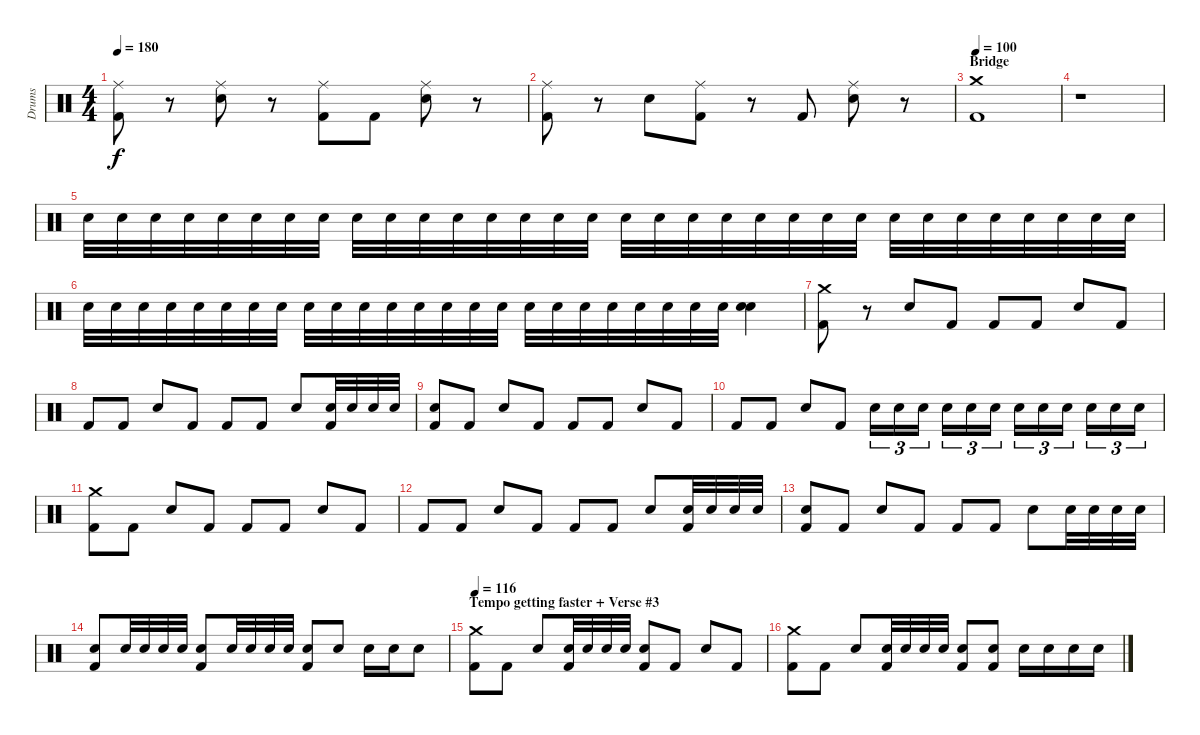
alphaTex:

\track ("Drums" "Drums") {instrument percussion}
\staff {score}
\articulation defaults
\ts (4 4)
\tempo 180
\clef neutral
\ks c
("Ride (middle)" "Kick (hit) 2").8{dy f} r.8 ("Ride (middle)" "Electric Snare (hit)").8 r.8 ("Ride (middle)" "Kick (hit) 2").8 "Kick (hit) 2".8 ("Ride (middle)" "Electric Snare (hit)").8 r.8 |
("Ride (middle)" "Kick (hit) 2").8 r.8 "Electric Snare (hit)".8 ("Ride (middle)" "Kick (hit) 2").8 r.8 "Kick (hit) 2".8 ("Ride (middle)" "Electric Snare (hit)").8 r.8 |
\section ("" "Bridge")
\tempo 100
("Kick (hit) 2" "Crash medium (hit)").1 |
r.1 |
"Electric Snare (hit)".32{volume 7} "Electric Snare (hit)".32 "Electric Snare (hit)".32 "Electric Snare (hit)".32 "Electric Snare (hit)".32 "Electric Snare (hit)".32 "Electric Snare (hit)".32 "Electric Snare (hit)".32 "Electric Snare (hit)".32 "Electric Snare (hit)".32 "Electric Snare (hit)".32 "Electric Snare (hit)".32 "Electric Snare (hit)".32 "Electric Snare (hit)".32 "Electric Snare (hit)".32 "Electric Snare (hit)".32 "Electric Snare (hit)".32 "Electric Snare (hit)".32 "Electric Snare (hit)".32 "Electric Snare (hit)".32 "Electric Snare (hit)".32 "Electric Snare (hit)".32 "Electric Snare (hit)".32 "Electric Snare (hit)".32 "Electric Snare (hit)".32 "Electric Snare (hit)".32 "Electric Snare (hit)".32 "Electric Snare (hit)".32 "Electric Snare (hit)".32 "Electric Snare (hit)".32 "Electric Snare (hit)".32 "Electric Snare (hit)".32 |
"Electric Snare (hit)".32 "Electric Snare (hit)".32 "Electric Snare (hit)".32 "Electric Snare (hit)".32 "Electric Snare (hit)".32 "Electric Snare (hit)".32 "Electric Snare (hit)".32 "Electric Snare (hit)".32 "Electric Snare (hit)".32 "Electric Snare (hit)".32 "Electric Snare (hit)".32 "Electric Snare (hit)".32 "Electric Snare (hit)".32 "Electric Snare (hit)".32 "Electric Snare (hit)".32 "Electric Snare (hit)".32 "Electric Snare (hit)".32 "Electric Snare (hit)".32 "Electric Snare (hit)".32 "Electric Snare (hit)".32 "Electric Snare (hit)".32 "Electric Snare (hit)".32 "Electric Snare (hit)".32 "Electric Snare (hit)".32 ("Electric Snare (hit)" "Electric Snare (hit)").4{volume 13} |
("Kick (hit) 2" "Crash medium (hit)").8 r.8 "Electric Snare (hit)".8 "Kick (hit) 2".8 "Kick (hit) 2".8 "Kick (hit) 2".8 "Electric Snare (hit)".8 "Kick (hit) 2".8 |
"Kick (hit) 2".8 "Kick (hit) 2".8 "Electric Snare (hit)".8 "Kick (hit) 2".8 "Kick (hit) 2".8 "Kick (hit) 2".8 "Electric Snare (hit)".8 ("Kick (hit) 2" "Electric Snare (hit)").32 "Electric Snare (hit)".32 "Electric Snare (hit)".32 "Electric Snare (hit)".32 |
("Kick (hit) 2" "Electric Snare (hit)").8 "Kick (hit) 2".8 "Electric Snare (hit)".8 "Kick (hit) 2".8 "Kick (hit) 2".8 "Kick (hit) 2".8 "Electric Snare (hit)".8 "Kick (hit) 2".8 |
"Kick (hit) 2".8 "Kick (hit) 2".8 "Electric Snare (hit)".8 "Kick (hit) 2".8 "Electric Snare (hit)".16{tu (3 2)} "Electric Snare (hit)".16{tu (3 2)} "Electric Snare (hit)".16{tu (3 2)} "Electric Snare (hit)".16{tu (3 2)} "Electric Snare (hit)".16{tu (3 2)} "Electric Snare (hit)".16{tu (3 2)} "Electric Snare (hit)".16{tu (3 2)} "Electric Snare (hit)".16{tu (3 2)} "Electric Snare (hit)".16{tu (3 2)} "Electric Snare (hit)".16{tu (3 2)} "Electric Snare (hit)".16{tu (3 2)} "Electric Snare (hit)".16{tu (3 2)} |
("Kick (hit) 2" "Crash medium (hit)").8 "Kick (hit) 2".8 "Electric Snare (hit)".8 "Kick (hit) 2".8 "Kick (hit) 2".8 "Kick (hit) 2".8 "Electric Snare (hit)".8 "Kick (hit) 2".8 |
"Kick (hit) 2".8 "Kick (hit) 2".8 "Electric Snare (hit)".8 "Kick (hit) 2".8 "Kick (hit) 2".8 "Kick (hit) 2".8 "Electric Snare (hit)".8 ("Kick (hit) 2" "Electric Snare (hit)").32 "Electric Snare (hit)".32 "Electric Snare (hit)".32 "Electric Snare (hit)".32 |
("Kick (hit) 2" "Electric Snare (hit)").8 "Kick (hit) 2".8 "Electric Snare (hit)".8 "Kick (hit) 2".8 "Kick (hit) 2".8 "Kick (hit) 2".8 "Electric Snare (hit)".8 "Electric Snare (hit)".32 "Electric Snare (hit)".32 "Electric Snare (hit)".32 "Electric Snare (hit)".32 |
("Kick (hit) 2" "Electric Snare (hit)").8 "Electric Snare (hit)".32 "Electric Snare (hit)".32 "Electric Snare (hit)".32 "Electric Snare (hit)".32 ("Kick (hit) 2" "Electric Snare (hit)").8 "Electric Snare (hit)".32 "Electric Snare (hit)".32 "Electric Snare (hit)".32 "Electric Snare (hit)".32 ("Kick (hit) 2" "Electric Snare (hit)").8 "Electric Snare (hit)".8 "Electric Snare (hit)".16 "Electric Snare (hit)".16 "Electric Snare (hit)".8 |
\section ("" "Tempo getting faster + Verse #3")
\tempo 116
("Kick (hit) 2" "Crash medium (hit)").8 "Kick (hit) 2".8 "Electric Snare (hit)".8 ("Kick (hit) 2" "Electric Snare (hit)").32 "Electric Snare (hit)".32 "Electric Snare (hit)".32 "Electric Snare (hit)".32 ("Kick (hit) 2" "Electric Snare (hit)").8 "Kick (hit) 2".8 "Electric Snare (hit)".8 "Kick (hit) 2".8 |
("Kick (hit) 2" "Crash medium (hit)").8 "Kick (hit) 2".8 "Electric Snare (hit)".8 ("Kick (hit) 2" "Electric Snare (hit)").32 "Electric Snare (hit)".32 "Electric Snare (hit)".32 "Electric Snare (hit)".32 ("Kick (hit) 2" "Electric Snare (hit)").8 ("Kick (hit) 2" "Electric Snare (hit)").8 "Electric Snare (hit)".16 "Electric Snare (hit)".16 "Electric Snare (hit)".16 "Electric Snare (hit)".16
